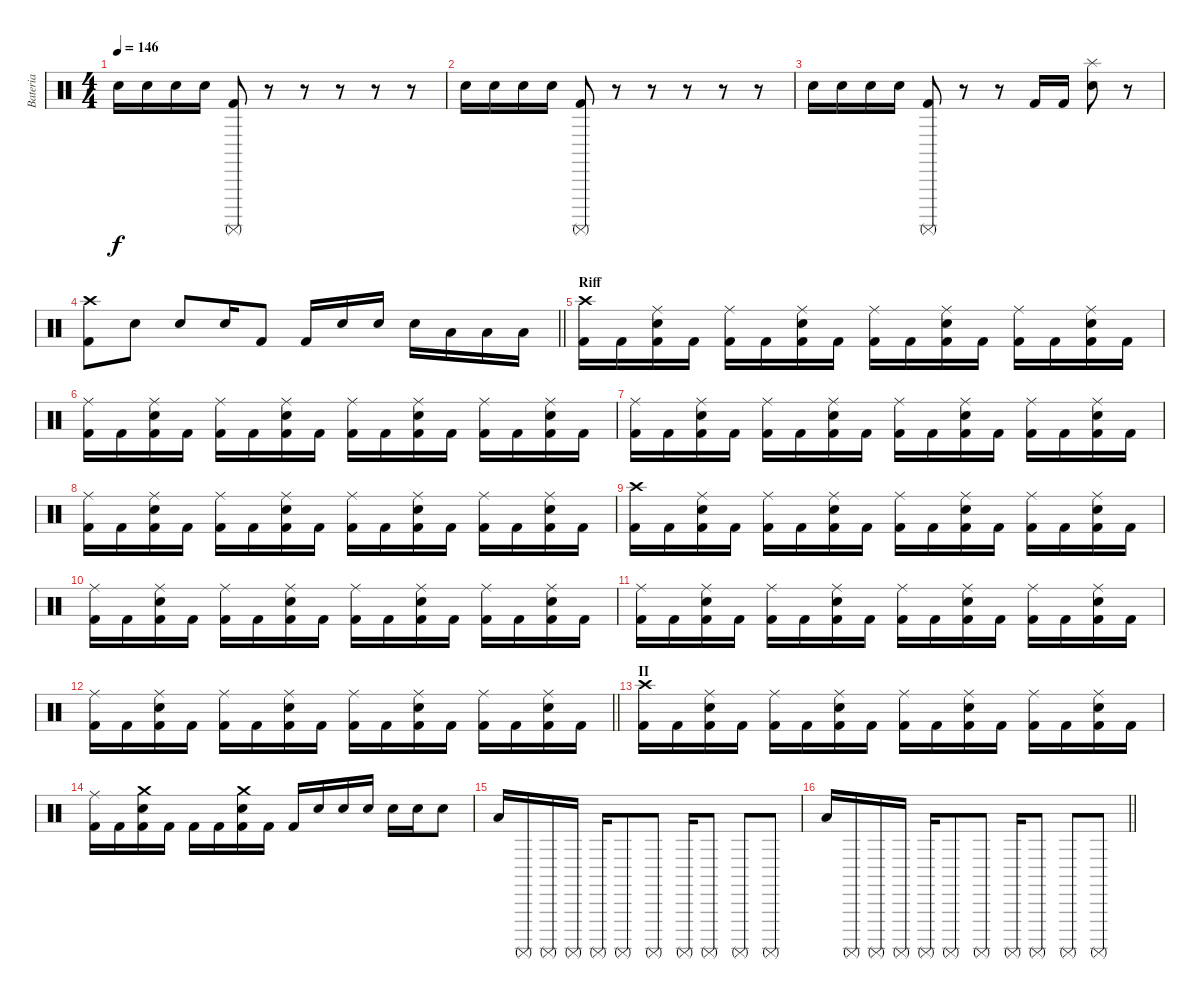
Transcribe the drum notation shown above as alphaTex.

\track ("Bateria" "Bateria") {instrument percussion}
\staff {score}
\articulation defaults
\ts (4 4)
\tempo 146
\clef neutral
\ks c "Electric Snare (hit)".16{dy f} "Electric Snare (hit)".16 "Electric Snare (hit)".16 "Electric Snare (hit)".16
("Kick (hit) 2" "Surdo (mute)").8 r.8 r.8 r.8 r.8 r.8 |
"Electric Snare (hit)".16 "Electric Snare (hit)".16 "Electric Snare (hit)".16 "Electric Snare (hit)".16 ("Kick (hit) 2" "Surdo (mute)").8 r.8 r.8 r.8 r.8 r.8 |
"Electric Snare (hit)".16 "Electric Snare (hit)".16 "Electric Snare (hit)".16 "Electric Snare (hit)".16 ("Kick (hit) 2" "Surdo (mute)").8 r.8 r.8 "Kick (hit) 2".16 "Kick (hit) 2".16 ("Electric Snare (hit)" "Splash (hit)").8 r.8 |
\barLineRight lightlight
("Kick (hit) 2" "Crash high (hit)").8 "Electric Snare (hit)".8 "Electric Snare (hit)".8 "Electric Snare (hit)".16 "Kick (hit) 2".8 "Kick (hit) 2".16 "Electric Snare (hit)".16 "Electric Snare (hit)".16 "Electric Snare (hit)".16 "Low Tom (hit)".16 "Low Tom (hit)".16 "Low Tom (hit)".16 |
\section ("" "Riff")
("Kick (hit) 2" "Crash high (hit)").16 "Kick (hit) 2".16 ("Kick (hit) 2" "Electric Snare (hit)" "Ride (middle)").16 "Kick (hit) 2".16 ("Kick (hit) 2" "Ride (middle)").16 "Kick (hit) 2".16 ("Kick (hit) 2" "Electric Snare (hit)" "Ride (middle)").16 "Kick (hit) 2".16 ("Kick (hit) 2" "Ride (middle)").16 "Kick (hit) 2".16 ("Kick (hit) 2" "Electric Snare (hit)" "Ride (middle)").16 "Kick (hit) 2".16 ("Kick (hit) 2" "Ride (middle)").16 "Kick (hit) 2".16 ("Kick (hit) 2" "Electric Snare (hit)" "Ride (middle)").16 "Kick (hit) 2".16 |
("Kick (hit) 2" "Ride (middle)").16 "Kick (hit) 2".16 ("Kick (hit) 2" "Electric Snare (hit)" "Ride (middle)").16 "Kick (hit) 2".16 ("Kick (hit) 2" "Ride (middle)").16 "Kick (hit) 2".16 ("Kick (hit) 2" "Electric Snare (hit)" "Ride (middle)").16 "Kick (hit) 2".16 ("Kick (hit) 2" "Ride (middle)").16 "Kick (hit) 2".16 ("Kick (hit) 2" "Electric Snare (hit)" "Ride (middle)").16 "Kick (hit) 2".16 ("Kick (hit) 2" "Ride (middle)").16 "Kick (hit) 2".16 ("Kick (hit) 2" "Electric Snare (hit)" "Ride (middle)").16 "Kick (hit) 2".16 |
("Kick (hit) 2" "Ride (middle)").16 "Kick (hit) 2".16 ("Kick (hit) 2" "Electric Snare (hit)" "Ride (middle)").16 "Kick (hit) 2".16 ("Kick (hit) 2" "Ride (middle)").16 "Kick (hit) 2".16 ("Kick (hit) 2" "Electric Snare (hit)" "Ride (middle)").16 "Kick (hit) 2".16 ("Kick (hit) 2" "Ride (middle)").16 "Kick (hit) 2".16 ("Kick (hit) 2" "Electric Snare (hit)" "Ride (middle)").16 "Kick (hit) 2".16 ("Kick (hit) 2" "Ride (middle)").16 "Kick (hit) 2".16 ("Kick (hit) 2" "Electric Snare (hit)" "Ride (middle)").16 "Kick (hit) 2".16 |
("Kick (hit) 2" "Ride (middle)").16 "Kick (hit) 2".16 ("Kick (hit) 2" "Electric Snare (hit)" "Ride (middle)").16 "Kick (hit) 2".16 ("Kick (hit) 2" "Ride (middle)").16 "Kick (hit) 2".16 ("Kick (hit) 2" "Electric Snare (hit)" "Ride (middle)").16 "Kick (hit) 2".16 ("Kick (hit) 2" "Ride (middle)").16 "Kick (hit) 2".16 ("Kick (hit) 2" "Electric Snare (hit)" "Ride (middle)").16 "Kick (hit) 2".16 ("Kick (hit) 2" "Ride (middle)").16 "Kick (hit) 2".16 ("Kick (hit) 2" "Electric Snare (hit)" "Ride (middle)").16 "Kick (hit) 2".16 |
("Kick (hit) 2" "Crash high (hit)").16 "Kick (hit) 2".16 ("Kick (hit) 2" "Electric Snare (hit)" "Ride (middle)").16 "Kick (hit) 2".16 ("Kick (hit) 2" "Ride (middle)").16 "Kick (hit) 2".16 ("Kick (hit) 2" "Electric Snare (hit)" "Ride (middle)").16 "Kick (hit) 2".16 ("Kick (hit) 2" "Ride (middle)").16 "Kick (hit) 2".16 ("Kick (hit) 2" "Electric Snare (hit)" "Ride (middle)").16 "Kick (hit) 2".16 ("Kick (hit) 2" "Ride (middle)").16 "Kick (hit) 2".16 ("Kick (hit) 2" "Electric Snare (hit)" "Ride (middle)").16 "Kick (hit) 2".16 |
("Kick (hit) 2" "Ride (middle)").16 "Kick (hit) 2".16 ("Kick (hit) 2" "Electric Snare (hit)" "Ride (middle)").16 "Kick (hit) 2".16 ("Kick (hit) 2" "Ride (middle)").16 "Kick (hit) 2".16 ("Kick (hit) 2" "Electric Snare (hit)" "Ride (middle)").16 "Kick (hit) 2".16 ("Kick (hit) 2" "Ride (middle)").16 "Kick (hit) 2".16 ("Kick (hit) 2" "Electric Snare (hit)" "Ride (middle)").16 "Kick (hit) 2".16 ("Kick (hit) 2" "Ride (middle)").16 "Kick (hit) 2".16 ("Kick (hit) 2" "Electric Snare (hit)" "Ride (middle)").16 "Kick (hit) 2".16 |
("Kick (hit) 2" "Ride (middle)").16 "Kick (hit) 2".16 ("Kick (hit) 2" "Electric Snare (hit)" "Ride (middle)").16 "Kick (hit) 2".16 ("Kick (hit) 2" "Ride (middle)").16 "Kick (hit) 2".16 ("Kick (hit) 2" "Electric Snare (hit)" "Ride (middle)").16 "Kick (hit) 2".16 ("Kick (hit) 2" "Ride (middle)").16 "Kick (hit) 2".16 ("Kick (hit) 2" "Electric Snare (hit)" "Ride (middle)").16 "Kick (hit) 2".16 ("Kick (hit) 2" "Ride (middle)").16 "Kick (hit) 2".16 ("Kick (hit) 2" "Electric Snare (hit)" "Ride (middle)").16 "Kick (hit) 2".16 |
\barLineRight lightlight
("Kick (hit) 2" "Ride (middle)").16 "Kick (hit) 2".16 ("Kick (hit) 2" "Electric Snare (hit)" "Ride (middle)").16 "Kick (hit) 2".16 ("Kick (hit) 2" "Ride (middle)").16 "Kick (hit) 2".16 ("Kick (hit) 2" "Electric Snare (hit)" "Ride (middle)").16 "Kick (hit) 2".16 ("Kick (hit) 2" "Ride (middle)").16 "Kick (hit) 2".16 ("Kick (hit) 2" "Electric Snare (hit)" "Ride (middle)").16 "Kick (hit) 2".16 ("Kick (hit) 2" "Ride (middle)").16 "Kick (hit) 2".16 ("Kick (hit) 2" "Electric Snare (hit)" "Ride (middle)").16 "Kick (hit) 2".16 |
\section ("" "II")
("Kick (hit) 2" "Crash high (hit)").16 "Kick (hit) 2".16 ("Kick (hit) 2" "Electric Snare (hit)" "Ride (middle)").16 "Kick (hit) 2".16 ("Kick (hit) 2" "Ride (middle)").16 "Kick (hit) 2".16 ("Kick (hit) 2" "Electric Snare (hit)" "Ride (middle)").16 "Kick (hit) 2".16 ("Kick (hit) 2" "Ride (middle)").16 "Kick (hit) 2".16 ("Kick (hit) 2" "Electric Snare (hit)" "Ride (middle)").16 "Kick (hit) 2".16 ("Kick (hit) 2" "Ride (middle)").16 "Kick (hit) 2".16 ("Kick (hit) 2" "Electric Snare (hit)" "Ride (middle)").16 "Kick (hit) 2".16 |
("Kick (hit) 2" "Ride (middle)").16 "Kick (hit) 2".16 ("Kick (hit) 2" "Electric Snare (hit)" "Crash medium (hit)").16 "Kick (hit) 2".16 "Kick (hit) 2".16 "Kick (hit) 2".16 ("Kick (hit) 2" "Electric Snare (hit)" "Crash medium (hit)").16 "Kick (hit) 2".16 "Kick (hit) 2".16 "Electric Snare (hit)".16 "Electric Snare (hit)".16 "Electric Snare (hit)".16 "Electric Snare (hit)".16 "Electric Snare (hit)".16 "Electric Snare (hit)".8 |
"Low Tom (hit)".16 "Surdo (mute)".16 "Surdo (mute)".16 "Surdo (mute)".16 "Surdo (mute)".16 "Surdo (mute)".8 "Surdo (mute)".8 "Surdo (mute)".16 "Surdo (mute)".8 "Surdo (mute)".8 "Surdo (mute)".8 |
\barLineRight lightlight "Low Tom (hit)".16 "Surdo (mute)".16 "Surdo (mute)".16 "Surdo (mute)".16 "Surdo (mute)".16 "Surdo (mute)".8 "Surdo (mute)".8 "Surdo (mute)".16 "Surdo (mute)".8 "Surdo (mute)".8 "Surdo (mute)".8
